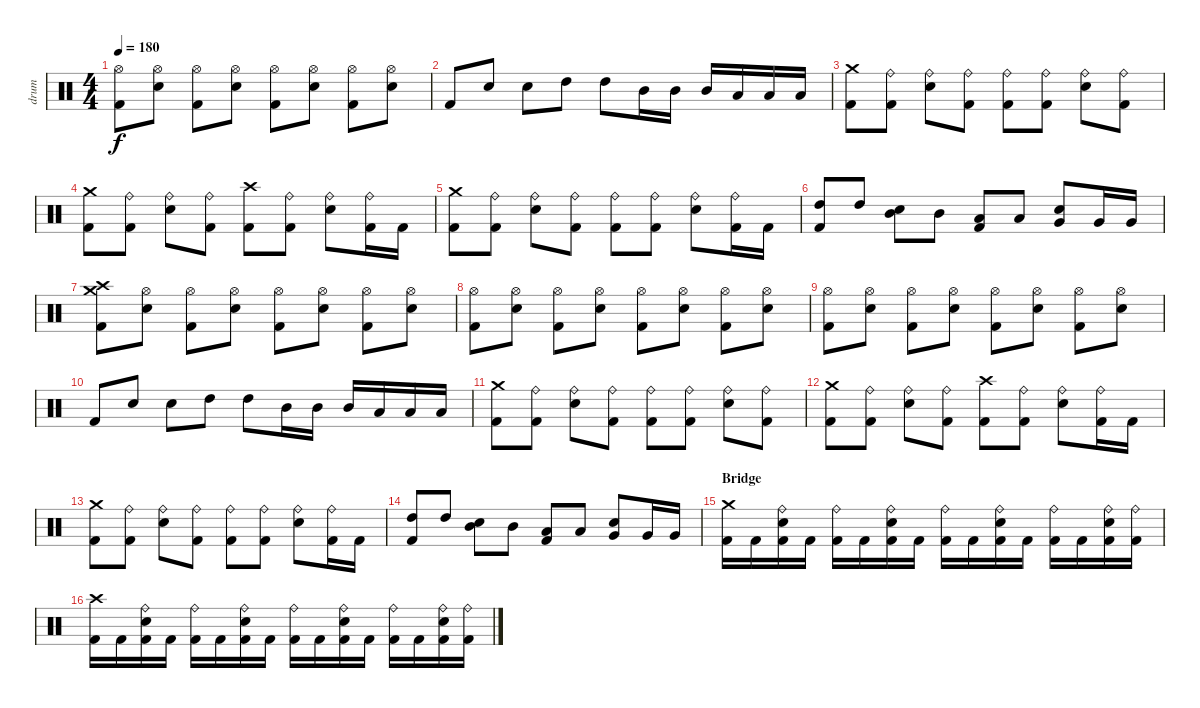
\track ("drum" "drum") {instrument percussion}
\staff {score}
\articulation defaults
\ts (4 4)
\tempo 180
\clef neutral
\ks c
("Hi-Hat (open)" "Kick (hit) 2").8{dy f} ("Hi-Hat (open)" "Electric Snare (hit)").8 ("Hi-Hat (open)" "Kick (hit) 2").8 ("Hi-Hat (open)" "Electric Snare (hit)").8 ("Hi-Hat (open)" "Kick (hit) 2").8 ("Hi-Hat (open)" "Electric Snare (hit)").8 ("Hi-Hat (open)" "Kick (hit) 2").8 ("Hi-Hat (open)" "Electric Snare (hit)").8 |
"Kick (hit) 2".8 "Electric Snare (hit)".8 "Electric Snare (hit)".8 "High Tom (hit)".8 "High Tom (hit)".8 "Mid Tom (hit)".16 "Mid Tom (hit)".16 "Mid Tom (hit)".16 "Low Tom (hit)".16 "Low Tom (hit)".16 "Low Tom (hit)".16 |
("Crash medium (hit)" "Kick (hit) 2").8 ("Ride (bell)" "Kick (hit) 2").8 ("Ride (bell)" "Electric Snare (hit)").8 ("Ride (bell)" "Kick (hit) 2").8 ("Ride (bell)" "Kick (hit) 2").8 ("Ride (bell)" "Kick (hit) 2").8 ("Ride (bell)" "Electric Snare (hit)").8 ("Ride (bell)" "Kick (hit) 2").8 |
("Crash medium (hit)" "Kick (hit) 2").8 ("Ride (bell)" "Kick (hit) 2").8 ("Ride (bell)" "Electric Snare (hit)").8 ("Ride (bell)" "Kick (hit) 2").8 ("Crash high (hit)" "Kick (hit) 2").8 ("Ride (bell)" "Kick (hit) 2").8 ("Ride (bell)" "Electric Snare (hit)").8 ("Ride (bell)" "Kick (hit) 2").16 "Kick (hit) 2".16 |
("Crash medium (hit)" "Kick (hit) 2").8 ("Ride (bell)" "Kick (hit) 2").8 ("Ride (bell)" "Electric Snare (hit)").8 ("Ride (bell)" "Kick (hit) 2").8 ("Ride (bell)" "Kick (hit) 2").8 ("Ride (bell)" "Kick (hit) 2").8 ("Ride (bell)" "Electric Snare (hit)").8 ("Ride (bell)" "Kick (hit) 2").16 "Kick (hit) 2".16 |
("High Tom (hit)" "Kick (hit) 2").8 "High Tom (hit)".8 ("Mid Tom (hit)" "Electric Snare (hit)").8 "Mid Tom (hit)".8 ("Low Tom (hit)" "Kick (hit) 2").8 "Low Tom (hit)".8 ("Very Low Tom (hit)" "Electric Snare (hit)").8 "Very Low Tom (hit)".16 "Very Low Tom (hit)".16 |
("Crash high (hit)" "Crash medium (hit)" "Kick (hit) 2").8 ("Hi-Hat (open)" "Electric Snare (hit)").8 ("Hi-Hat (open)" "Kick (hit) 2").8 ("Hi-Hat (open)" "Electric Snare (hit)").8 ("Hi-Hat (open)" "Kick (hit) 2").8 ("Hi-Hat (open)" "Electric Snare (hit)").8 ("Hi-Hat (open)" "Kick (hit) 2").8 ("Hi-Hat (open)" "Electric Snare (hit)").8 |
("Hi-Hat (open)" "Kick (hit) 2").8 ("Hi-Hat (open)" "Electric Snare (hit)").8 ("Hi-Hat (open)" "Kick (hit) 2").8 ("Hi-Hat (open)" "Electric Snare (hit)").8 ("Hi-Hat (open)" "Kick (hit) 2").8 ("Hi-Hat (open)" "Electric Snare (hit)").8 ("Hi-Hat (open)" "Kick (hit) 2").8 ("Hi-Hat (open)" "Electric Snare (hit)").8 |
("Hi-Hat (open)" "Kick (hit) 2").8 ("Hi-Hat (open)" "Electric Snare (hit)").8 ("Hi-Hat (open)" "Kick (hit) 2").8 ("Hi-Hat (open)" "Electric Snare (hit)").8 ("Hi-Hat (open)" "Kick (hit) 2").8 ("Hi-Hat (open)" "Electric Snare (hit)").8 ("Hi-Hat (open)" "Kick (hit) 2").8 ("Hi-Hat (open)" "Electric Snare (hit)").8 |
"Kick (hit) 2".8 "Electric Snare (hit)".8 "Electric Snare (hit)".8 "High Tom (hit)".8 "High Tom (hit)".8 "Mid Tom (hit)".16 "Mid Tom (hit)".16 "Mid Tom (hit)".16 "Low Tom (hit)".16 "Low Tom (hit)".16 "Low Tom (hit)".16 |
("Crash medium (hit)" "Kick (hit) 2").8 ("Ride (bell)" "Kick (hit) 2").8 ("Ride (bell)" "Electric Snare (hit)").8 ("Ride (bell)" "Kick (hit) 2").8 ("Ride (bell)" "Kick (hit) 2").8 ("Ride (bell)" "Kick (hit) 2").8 ("Ride (bell)" "Electric Snare (hit)").8 ("Ride (bell)" "Kick (hit) 2").8 |
("Crash medium (hit)" "Kick (hit) 2").8 ("Ride (bell)" "Kick (hit) 2").8 ("Ride (bell)" "Electric Snare (hit)").8 ("Ride (bell)" "Kick (hit) 2").8 ("Crash high (hit)" "Kick (hit) 2").8 ("Ride (bell)" "Kick (hit) 2").8 ("Ride (bell)" "Electric Snare (hit)").8 ("Ride (bell)" "Kick (hit) 2").16 "Kick (hit) 2".16 |
("Crash medium (hit)" "Kick (hit) 2").8 ("Ride (bell)" "Kick (hit) 2").8 ("Ride (bell)" "Electric Snare (hit)").8 ("Ride (bell)" "Kick (hit) 2").8 ("Ride (bell)" "Kick (hit) 2").8 ("Ride (bell)" "Kick (hit) 2").8 ("Ride (bell)" "Electric Snare (hit)").8 ("Ride (bell)" "Kick (hit) 2").16 "Kick (hit) 2".16 |
("High Tom (hit)" "Kick (hit) 2").8 "High Tom (hit)".8 ("Mid Tom (hit)" "Electric Snare (hit)").8 "Mid Tom (hit)".8 ("Low Tom (hit)" "Kick (hit) 2").8 "Low Tom (hit)".8 ("Very Low Tom (hit)" "Electric Snare (hit)").8 "Very Low Tom (hit)".16 "Very Low Tom (hit)".16 |
\section ("" "Bridge")
("Crash medium (hit)" "Kick (hit) 2").16 "Kick (hit) 2".16 ("Ride (bell)" "Electric Snare (hit)" "Kick (hit) 2").16 "Kick (hit) 2".16 ("Ride (bell)" "Kick (hit) 2").16 "Kick (hit) 2".16 ("Ride (bell)" "Electric Snare (hit)" "Kick (hit) 2").16 "Kick (hit) 2".16 ("Ride (bell)" "Kick (hit) 2").16 "Kick (hit) 2".16 ("Ride (bell)" "Electric Snare (hit)" "Kick (hit) 2").16 "Kick (hit) 2".16 ("Ride (bell)" "Kick (hit) 2").16 "Kick (hit) 2".16 ("Ride (bell)" "Electric Snare (hit)" "Kick (hit) 2").16 ("Ride (bell)" "Kick (hit) 2").16 |
("Crash high (hit)" "Kick (hit) 2").16 "Kick (hit) 2".16 ("Ride (bell)" "Electric Snare (hit)" "Kick (hit) 2").16 "Kick (hit) 2".16 ("Ride (bell)" "Kick (hit) 2").16 "Kick (hit) 2".16 ("Ride (bell)" "Electric Snare (hit)" "Kick (hit) 2").16 "Kick (hit) 2".16 ("Ride (bell)" "Kick (hit) 2").16 "Kick (hit) 2".16 ("Ride (bell)" "Electric Snare (hit)" "Kick (hit) 2").16 "Kick (hit) 2".16 ("Ride (bell)" "Kick (hit) 2").16 "Kick (hit) 2".16 ("Ride (bell)" "Electric Snare (hit)" "Kick (hit) 2").16 ("Ride (bell)" "Kick (hit) 2").16
